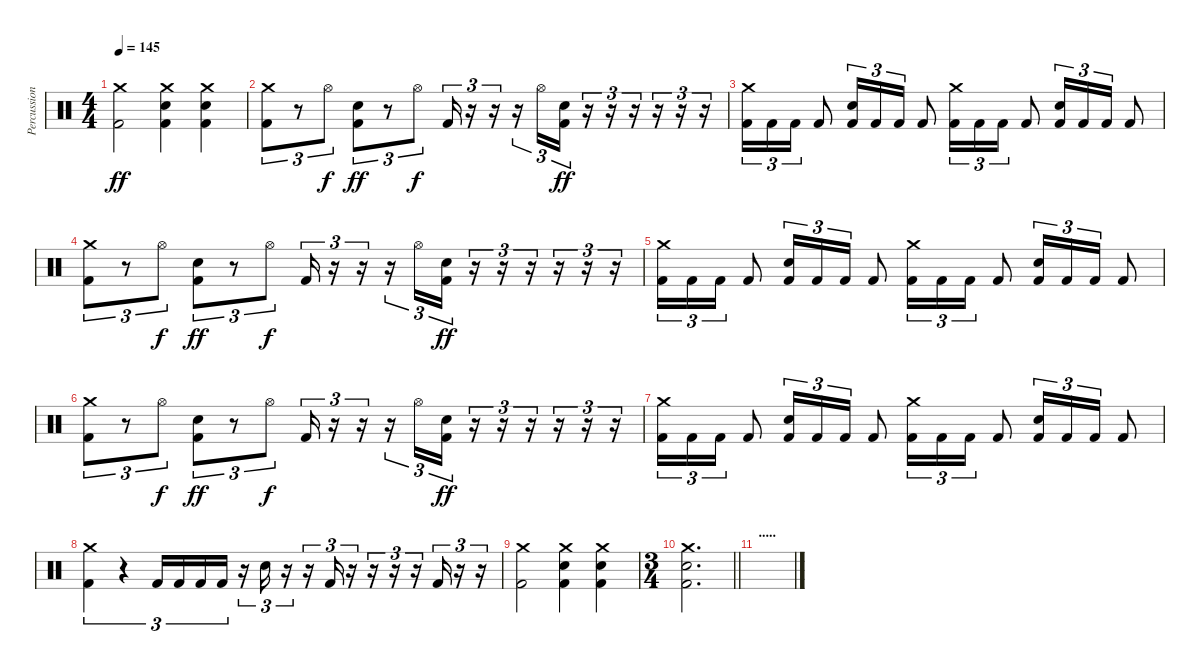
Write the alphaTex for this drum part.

\track ("Percussion" "Percussion") {instrument percussion}
\staff {score}
\articulation defaults
\ts (4 4)
\tempo 145
\clef neutral
\ks c
("Crash medium (hit)" "Kick (hit) 2").2{dy ff} ("Crash medium (hit)" "Electric Snare (hit)" "Kick (hit) 2").4 ("Crash medium (hit)" "Electric Snare (hit)" "Kick (hit) 2").4 |
("Crash medium (hit)" "Kick (hit) 2").8{tu (3 2)} r.8{tu (3 2)} "Hi-Hat (open)".8{tu (3 2) dy f} ("Electric Snare (hit)" "Kick (hit) 2").8{tu (3 2) dy ff} r.8{tu (3 2)} "Hi-Hat (open)".8{tu (3 2) dy f} "Kick (hit) 2".16{tu (3 2)} r.16{tu (3 2)} r.16{tu (3 2)} r.16{tu (3 2)} "Hi-Hat (open)".16{tu (3 2)} ("Electric Snare (hit)" "Kick (hit) 2").16{tu (3 2) dy ff} r.16{tu (3 2)} r.16{tu (3 2)} r.16{tu (3 2)} r.16{tu (3 2)} r.16{tu (3 2)} r.16{tu (3 2)} |
("Crash medium (hit)" "Kick (hit) 2").16{tu (3 2)} "Kick (hit) 2".16{tu (3 2)} "Kick (hit) 2".16{tu (3 2)} "Kick (hit) 2".8 ("Electric Snare (hit)" "Kick (hit) 2").16{tu (3 2)} "Kick (hit) 2".16{tu (3 2)} "Kick (hit) 2".16{tu (3 2)} "Kick (hit) 2".8 ("Crash medium (hit)" "Kick (hit) 2").16{tu (3 2)} "Kick (hit) 2".16{tu (3 2)} "Kick (hit) 2".16{tu (3 2)} "Kick (hit) 2".8 ("Electric Snare (hit)" "Kick (hit) 2").16{tu (3 2)} "Kick (hit) 2".16{tu (3 2)} "Kick (hit) 2".16{tu (3 2)} "Kick (hit) 2".8 |
("Crash medium (hit)" "Kick (hit) 2").8{tu (3 2)} r.8{tu (3 2)} "Hi-Hat (open)".8{tu (3 2) dy f} ("Electric Snare (hit)" "Kick (hit) 2").8{tu (3 2) dy ff} r.8{tu (3 2)} "Hi-Hat (open)".8{tu (3 2) dy f} "Kick (hit) 2".16{tu (3 2)} r.16{tu (3 2)} r.16{tu (3 2)} r.16{tu (3 2)} "Hi-Hat (open)".16{tu (3 2)} ("Electric Snare (hit)" "Kick (hit) 2").16{tu (3 2) dy ff} r.16{tu (3 2)} r.16{tu (3 2)} r.16{tu (3 2)} r.16{tu (3 2)} r.16{tu (3 2)} r.16{tu (3 2)} |
("Crash medium (hit)" "Kick (hit) 2").16{tu (3 2)} "Kick (hit) 2".16{tu (3 2)} "Kick (hit) 2".16{tu (3 2)} "Kick (hit) 2".8 ("Electric Snare (hit)" "Kick (hit) 2").16{tu (3 2)} "Kick (hit) 2".16{tu (3 2)} "Kick (hit) 2".16{tu (3 2)} "Kick (hit) 2".8 ("Crash medium (hit)" "Kick (hit) 2").16{tu (3 2)} "Kick (hit) 2".16{tu (3 2)} "Kick (hit) 2".16{tu (3 2)} "Kick (hit) 2".8 ("Electric Snare (hit)" "Kick (hit) 2").16{tu (3 2)} "Kick (hit) 2".16{tu (3 2)} "Kick (hit) 2".16{tu (3 2)} "Kick (hit) 2".8 |
("Crash medium (hit)" "Kick (hit) 2").8{tu (3 2)} r.8{tu (3 2)} "Hi-Hat (open)".8{tu (3 2) dy f} ("Electric Snare (hit)" "Kick (hit) 2").8{tu (3 2) dy ff} r.8{tu (3 2)} "Hi-Hat (open)".8{tu (3 2) dy f} "Kick (hit) 2".16{tu (3 2)} r.16{tu (3 2)} r.16{tu (3 2)} r.16{tu (3 2)} "Hi-Hat (open)".16{tu (3 2)} ("Electric Snare (hit)" "Kick (hit) 2").16{tu (3 2) dy ff} r.16{tu (3 2)} r.16{tu (3 2)} r.16{tu (3 2)} r.16{tu (3 2)} r.16{tu (3 2)} r.16{tu (3 2)} |
("Crash medium (hit)" "Kick (hit) 2").16{tu (3 2)} "Kick (hit) 2".16{tu (3 2)} "Kick (hit) 2".16{tu (3 2)} "Kick (hit) 2".8 ("Electric Snare (hit)" "Kick (hit) 2").16{tu (3 2)} "Kick (hit) 2".16{tu (3 2)} "Kick (hit) 2".16{tu (3 2)} "Kick (hit) 2".8 ("Crash medium (hit)" "Kick (hit) 2").16{tu (3 2)} "Kick (hit) 2".16{tu (3 2)} "Kick (hit) 2".16{tu (3 2)} "Kick (hit) 2".8 ("Electric Snare (hit)" "Kick (hit) 2").16{tu (3 2)} "Kick (hit) 2".16{tu (3 2)} "Kick (hit) 2".16{tu (3 2)} "Kick (hit) 2".8 |
("Crash medium (hit)" "Kick (hit) 2").4{tu (3 2)} r.4{tu (3 2)} "Kick (hit) 2".16{tu (3 2)} "Kick (hit) 2".16{tu (3 2)} "Kick (hit) 2".16{tu (3 2)} "Kick (hit) 2".16{tu (3 2)} r.16{tu (3 2)} "Electric Snare (hit)".16{tu (3 2)} r.16{tu (3 2)} r.16{tu (3 2)} "Kick (hit) 2".16{tu (3 2)} r.16{tu (3 2)} r.16{tu (3 2)} r.16{tu (3 2)} r.16{tu (3 2)} "Kick (hit) 2".16{tu (3 2)} r.16{tu (3 2)} r.16{tu (3 2)} |
("Crash medium (hit)" "Kick (hit) 2").2 ("Crash medium (hit)" "Electric Snare (hit)" "Kick (hit) 2").4 ("Crash medium (hit)" "Electric Snare (hit)" "Kick (hit) 2").4 |
\ts (3 4)
\barLineRight lightlight
("Crash medium (hit)" "Electric Snare (hit)" "Kick (hit) 2").2{d} |
\section ("" ".....")
